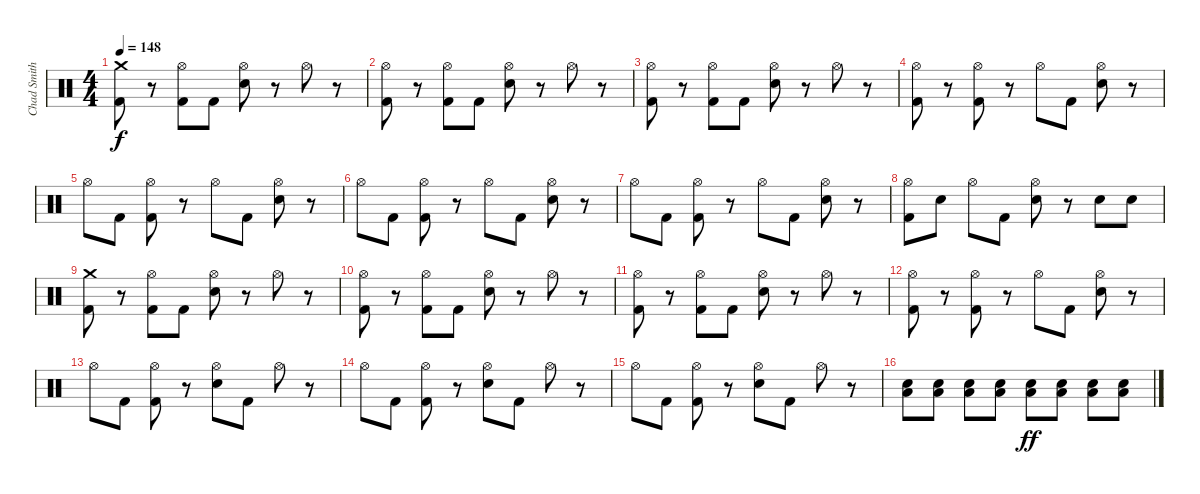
\track ("Chad Smith" "Chad Smith") {instrument percussion}
\staff {score}
\articulation defaults
\ts (4 4)
\tempo 148
\clef neutral
\ks c
("Crash medium (hit)" "Kick (hit) 2").8{dy f} r.8 ("Hi-Hat (open)" "Kick (hit) 2").8 "Kick (hit) 2".8 ("Hi-Hat (open)" "Snare (hit) 2").8 r.8 "Hi-Hat (open)".8 r.8 |
("Hi-Hat (open)" "Kick (hit) 2").8 r.8 ("Hi-Hat (open)" "Kick (hit) 2").8 "Kick (hit) 2".8 ("Hi-Hat (open)" "Snare (hit) 2").8 r.8 "Hi-Hat (open)".8 r.8 |
("Hi-Hat (open)" "Kick (hit) 2").8 r.8 ("Hi-Hat (open)" "Kick (hit) 2").8 "Kick (hit) 2".8 ("Hi-Hat (open)" "Snare (hit) 2").8 r.8 "Hi-Hat (open)".8 r.8 |
("Hi-Hat (open)" "Kick (hit) 2").8 r.8 ("Hi-Hat (open)" "Kick (hit) 2").8 r.8 "Hi-Hat (open)".8 "Kick (hit) 2".8 ("Hi-Hat (open)" "Snare (hit) 2").8 r.8 |
"Hi-Hat (open)".8 "Kick (hit) 2".8 ("Hi-Hat (open)" "Kick (hit) 2").8 r.8 "Hi-Hat (open)".8 "Kick (hit) 2".8 ("Hi-Hat (open)" "Snare (hit) 2").8 r.8 |
"Hi-Hat (open)".8 "Kick (hit) 2".8 ("Hi-Hat (open)" "Kick (hit) 2").8 r.8 "Hi-Hat (open)".8 "Kick (hit) 2".8 ("Hi-Hat (open)" "Snare (hit) 2").8 r.8 |
"Hi-Hat (open)".8 "Kick (hit) 2".8 ("Hi-Hat (open)" "Kick (hit) 2").8 r.8 "Hi-Hat (open)".8 "Kick (hit) 2".8 ("Hi-Hat (open)" "Snare (hit) 2").8 r.8 |
("Hi-Hat (open)" "Kick (hit) 2").8 "Snare (hit) 2".8 "Hi-Hat (open)".8 "Kick (hit) 2".8 ("Hi-Hat (open)" "Snare (hit) 2").8 r.8 "Snare (hit) 2".8 "Snare (hit) 2".8 |
("Crash medium (hit)" "Kick (hit) 2").8 r.8 ("Hi-Hat (open)" "Kick (hit) 2").8 "Kick (hit) 2".8 ("Hi-Hat (open)" "Snare (hit) 2").8 r.8 "Hi-Hat (open)".8 r.8 |
("Hi-Hat (open)" "Kick (hit) 2").8 r.8 ("Hi-Hat (open)" "Kick (hit) 2").8 "Kick (hit) 2".8 ("Hi-Hat (open)" "Snare (hit) 2").8 r.8 "Hi-Hat (open)".8 r.8 |
("Hi-Hat (open)" "Kick (hit) 2").8 r.8 ("Hi-Hat (open)" "Kick (hit) 2").8 "Kick (hit) 2".8 ("Hi-Hat (open)" "Snare (hit) 2").8 r.8 "Hi-Hat (open)".8 r.8 |
("Hi-Hat (open)" "Kick (hit) 2").8 r.8 ("Hi-Hat (open)" "Kick (hit) 2").8 r.8 "Hi-Hat (open)".8 "Kick (hit) 2".8 ("Hi-Hat (open)" "Snare (hit) 2").8 r.8 |
"Hi-Hat (open)".8 "Kick (hit) 2".8 ("Hi-Hat (open)" "Kick (hit) 2").8 r.8 ("Hi-Hat (open)" "Snare (hit) 2").8 "Kick (hit) 2".8 "Hi-Hat (open)".8 r.8 |
"Hi-Hat (open)".8 "Kick (hit) 2".8 ("Hi-Hat (open)" "Kick (hit) 2").8 r.8 ("Hi-Hat (open)" "Snare (hit) 2").8 "Kick (hit) 2".8 "Hi-Hat (open)".8 r.8 |
"Hi-Hat (open)".8 "Kick (hit) 2".8 ("Hi-Hat (open)" "Kick (hit) 2").8 r.8 ("Hi-Hat (open)" "Snare (hit) 2").8 "Kick (hit) 2".8 "Hi-Hat (open)".8 r.8 |
("Low Floor Tom (hit)" "Snare (hit) 2").8 ("Low Floor Tom (hit)" "Snare (hit) 2").8 ("Low Floor Tom (hit)" "Snare (hit) 2").8 ("Low Floor Tom (hit)" "Snare (hit) 2").8 ("Low Floor Tom (hit)" "Snare (hit) 2").8{dy ff} ("Low Floor Tom (hit)" "Snare (hit) 2").8 ("Low Floor Tom (hit)" "Snare (hit) 2").8 ("Low Floor Tom (hit)" "Snare (hit) 2").8
